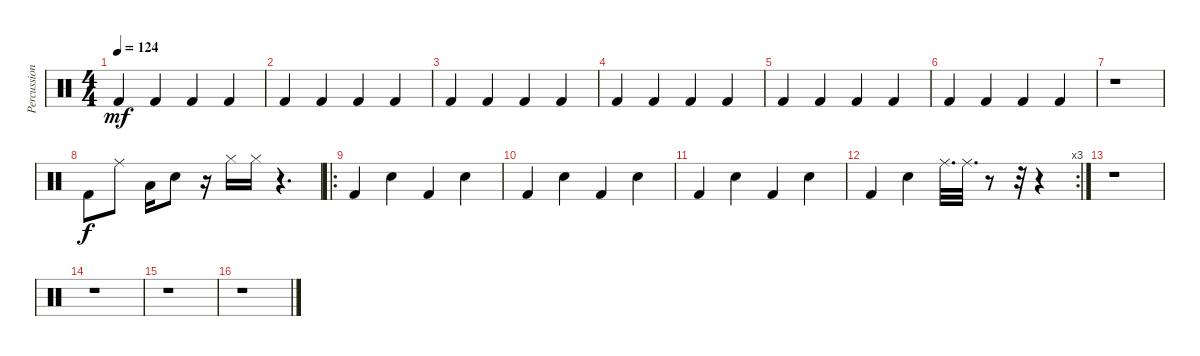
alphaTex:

\track ("Percussion" "Percussion") {instrument percussion}
\staff {score}
\articulation defaults
\ts (4 4)
\tempo 124
\clef neutral
\ks c "Kick (hit) 2".4{dy mf} "Kick (hit) 2".4 "Kick (hit) 2".4 "Kick (hit) 2".4
|
"Kick (hit) 2".4 "Kick (hit) 2".4 "Kick (hit) 2".4 "Kick (hit) 2".4 |
"Kick (hit) 2".4 "Kick (hit) 2".4 "Kick (hit) 2".4 "Kick (hit) 2".4 |
"Kick (hit) 2".4 "Kick (hit) 2".4 "Kick (hit) 2".4 "Kick (hit) 2".4 |
"Kick (hit) 2".4 "Kick (hit) 2".4 "Kick (hit) 2".4 "Kick (hit) 2".4 |
"Kick (hit) 2".4 "Kick (hit) 2".4 "Kick (hit) 2".4 "Kick (hit) 2".4 |
r.1 |
"Kick (hit) 2".8{dy f} "Ride (middle)".8 "Low Floor Tom (hit)".16 "Snare (hit) 2".8 r.16 "Hi-Hat (closed)".16 "Hi-Hat (closed)".16 r.4{d} |
\ro "Kick (hit) 2".4 "Snare (hit) 2".4 "Kick (hit) 2".4 "Snare (hit) 2".4
|
"Kick (hit) 2".4 "Snare (hit) 2".4 "Kick (hit) 2".4 "Snare (hit) 2".4 |
"Kick (hit) 2".4 "Snare (hit) 2".4 "Kick (hit) 2".4 "Snare (hit) 2".4 |
\rc 3 "Kick (hit) 2".4 "Snare (hit) 2".4 "Ride (middle)".32{d} "Ride (middle)".32{d}
r.8 r.32 r.4 |
r.1 |
r.1 |
r.1 |
r.1
